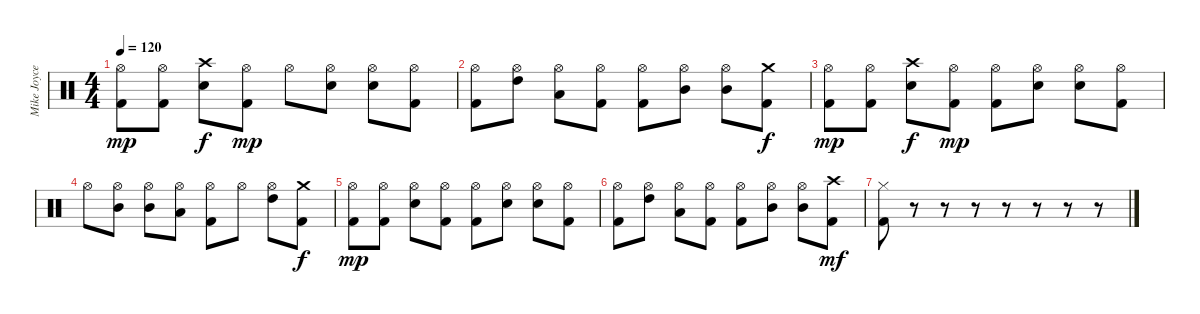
\track ("Mike Joyce" "Mike Joyce") {instrument percussion}
\staff {score}
\articulation defaults
\ts (4 4)
\tempo 120
\clef neutral
\ks c
("Hi-Hat (open)" "Kick (hit) 2").8{dy mp} ("Hi-Hat (open)" "Kick (hit) 2").8 ("Crash high (hit)" "Electric Snare (hit)").8{dy f} ("Hi-Hat (open)" "Kick (hit) 2").8{dy mp} "Hi-Hat (open)".8 ("Hi-Hat (open)" "Electric Snare (hit)").8 ("Hi-Hat (open)" "Electric Snare (hit)").8 ("Hi-Hat (open)" "Kick (hit) 2").8 |
("Hi-Hat (open)" "Kick (hit) 2").8 ("Hi-Hat (open)" "High Tom (hit)").8 ("Hi-Hat (open)" "Low Floor Tom (hit)").8 ("Hi-Hat (open)" "Kick (hit) 2").8 ("Hi-Hat (open)" "Kick (hit) 2").8 ("Hi-Hat (open)" "Mid Tom (hit)").8 ("Hi-Hat (open)" "Mid Tom (hit)").8 ("Crash medium (hit)" "Kick (hit) 2").8{dy f} |
("Hi-Hat (open)" "Kick (hit) 2").8{dy mp} ("Hi-Hat (open)" "Kick (hit) 2").8 ("Crash high (hit)" "Electric Snare (hit)").8{dy f} ("Hi-Hat (open)" "Kick (hit) 2").8{dy mp} ("Hi-Hat (open)" "Kick (hit) 2").8 ("Hi-Hat (open)" "Electric Snare (hit)").8 ("Hi-Hat (open)" "Electric Snare (hit)").8 ("Hi-Hat (open)" "Kick (hit) 2").8 |
"Hi-Hat (open)".8 ("Hi-Hat (open)" "Mid Tom (hit)").8 ("Hi-Hat (open)" "Mid Tom (hit)").8 ("Hi-Hat (open)" "Low Floor Tom (hit)").8 ("Hi-Hat (open)" "Kick (hit) 2").8 "Hi-Hat (open)".8 ("Hi-Hat (open)" "High Tom (hit)").8 ("Crash medium (hit)" "Kick (hit) 2").8{dy f} |
("Hi-Hat (open)" "Kick (hit) 2").8{dy mp} ("Hi-Hat (open)" "Kick (hit) 2").8 ("Hi-Hat (open)" "Electric Snare (hit)").8 ("Hi-Hat (open)" "Kick (hit) 2").8 ("Hi-Hat (open)" "Kick (hit) 2").8 ("Hi-Hat (open)" "Electric Snare (hit)").8 ("Hi-Hat (open)" "Electric Snare (hit)").8 ("Hi-Hat (open)" "Kick (hit) 2").8 |
("Hi-Hat (open)" "Kick (hit) 2").8 ("Hi-Hat (open)" "High Tom (hit)").8 ("Hi-Hat (open)" "Low Floor Tom (hit)").8 ("Hi-Hat (open)" "Kick (hit) 2").8 ("Hi-Hat (open)" "Kick (hit) 2").8 ("Hi-Hat (open)" "Mid Tom (hit)").8 ("Hi-Hat (open)" "Mid Tom (hit)").8 ("Crash high (hit)" "Kick (hit) 2").8{dy mf} |
("Hi-Hat (closed)" "Kick (hit) 2").8 r.8 r.8 r.8 r.8 r.8 r.8 r.8
